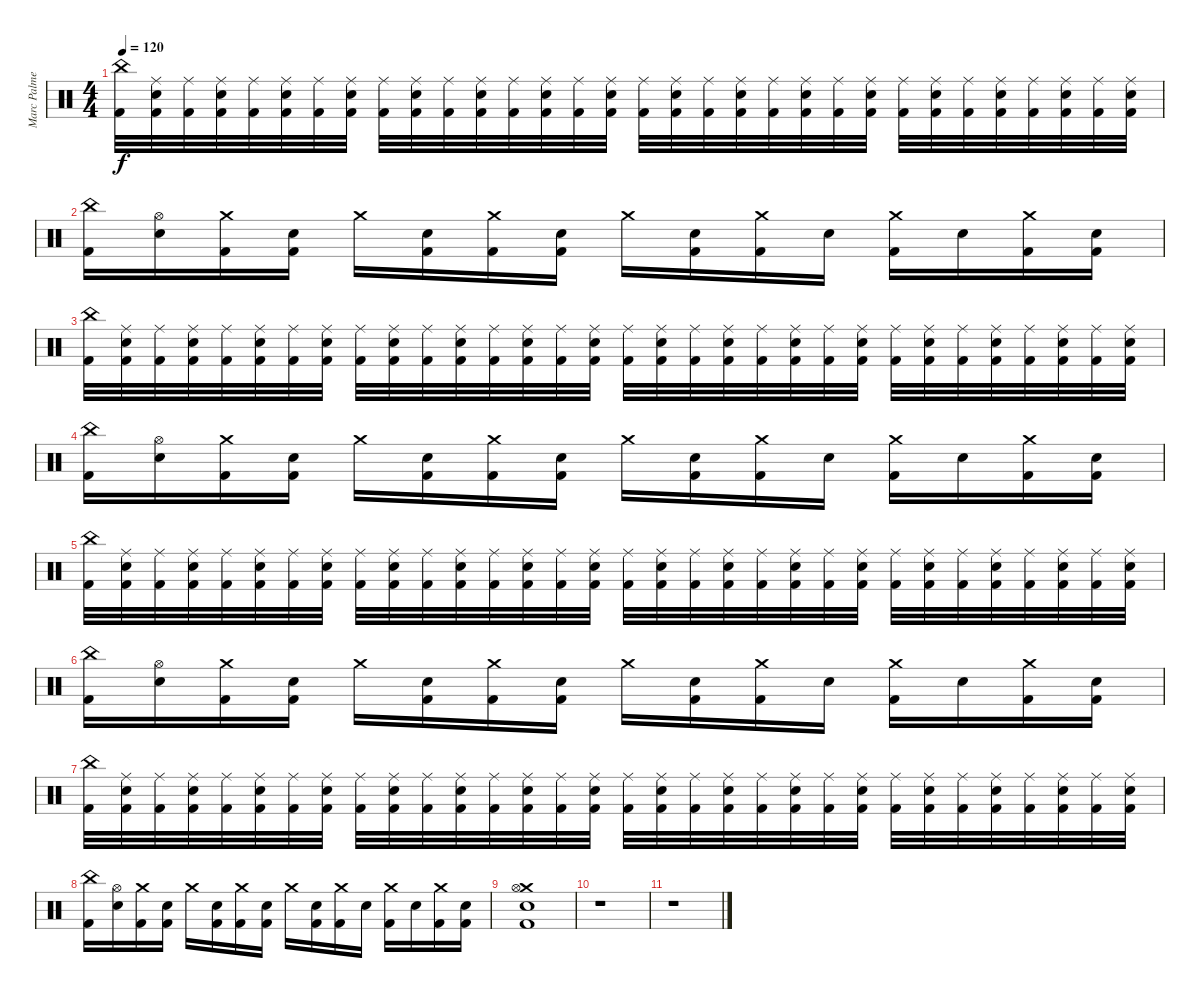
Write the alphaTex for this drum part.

\track ("Marc Palmen" "Marc Palme") {instrument percussion}
\staff {score}
\articulation defaults
\ts (4 4)
\tempo 120
\clef neutral
\ks c
("China (hit)" "Kick (hit) 2").32{dy f} ("Ride (middle)" "Electric Snare (hit)" "Kick (hit) 2").32 ("Ride (middle)" "Kick (hit) 2").32 ("Ride (middle)" "Electric Snare (hit)" "Kick (hit) 2").32 ("Ride (middle)" "Kick (hit) 2").32 ("Ride (middle)" "Electric Snare (hit)" "Kick (hit) 2").32 ("Ride (middle)" "Kick (hit) 2").32 ("Ride (middle)" "Electric Snare (hit)" "Kick (hit) 2").32 ("Ride (middle)" "Kick (hit) 2").32 ("Ride (middle)" "Electric Snare (hit)" "Kick (hit) 2").32 ("Ride (middle)" "Kick (hit) 2").32 ("Ride (middle)" "Electric Snare (hit)" "Kick (hit) 2").32 ("Ride (middle)" "Kick (hit) 2").32 ("Ride (middle)" "Electric Snare (hit)" "Kick (hit) 2").32 ("Ride (middle)" "Kick (hit) 2").32 ("Ride (middle)" "Electric Snare (hit)" "Kick (hit) 2").32 ("Ride (middle)" "Kick (hit) 2").32 ("Ride (middle)" "Electric Snare (hit)" "Kick (hit) 2").32 ("Ride (middle)" "Kick (hit) 2").32 ("Ride (middle)" "Electric Snare (hit)" "Kick (hit) 2").32 ("Ride (middle)" "Kick (hit) 2").32 ("Ride (middle)" "Electric Snare (hit)" "Kick (hit) 2").32 ("Ride (middle)" "Kick (hit) 2").32 ("Ride (middle)" "Electric Snare (hit)" "Kick (hit) 2").32 ("Ride (middle)" "Kick (hit) 2").32 ("Ride (middle)" "Electric Snare (hit)" "Kick (hit) 2").32 ("Ride (middle)" "Kick (hit) 2").32 ("Ride (middle)" "Electric Snare (hit)" "Kick (hit) 2").32 ("Ride (middle)" "Kick (hit) 2").32 ("Ride (middle)" "Electric Snare (hit)" "Kick (hit) 2").32 ("Ride (middle)" "Kick (hit) 2").32 ("Ride (middle)" "Electric Snare (hit)" "Kick (hit) 2").32 |
("China (hit)" "Kick (hit) 2").16 ("Hi-Hat (open)" "Electric Snare (hit)").16 ("Crash medium (hit)" "Kick (hit) 2").16 ("Electric Snare (hit)" "Kick (hit) 2").16 "Crash medium (hit)".16 ("Electric Snare (hit)" "Kick (hit) 2").16 ("Crash medium (hit)" "Kick (hit) 2").16 ("Electric Snare (hit)" "Kick (hit) 2").16 "Crash medium (hit)".16 ("Electric Snare (hit)" "Kick (hit) 2").16 ("Crash medium (hit)" "Kick (hit) 2").16 "Electric Snare (hit)".16 ("Crash medium (hit)" "Kick (hit) 2").16 "Electric Snare (hit)".16 ("Crash medium (hit)" "Kick (hit) 2").16 ("Electric Snare (hit)" "Kick (hit) 2").16 |
("China (hit)" "Kick (hit) 2").32 ("Ride (middle)" "Electric Snare (hit)" "Kick (hit) 2").32 ("Ride (middle)" "Kick (hit) 2").32 ("Ride (middle)" "Electric Snare (hit)" "Kick (hit) 2").32 ("Ride (middle)" "Kick (hit) 2").32 ("Ride (middle)" "Electric Snare (hit)" "Kick (hit) 2").32 ("Ride (middle)" "Kick (hit) 2").32 ("Ride (middle)" "Electric Snare (hit)" "Kick (hit) 2").32 ("Ride (middle)" "Kick (hit) 2").32 ("Ride (middle)" "Electric Snare (hit)" "Kick (hit) 2").32 ("Ride (middle)" "Kick (hit) 2").32 ("Ride (middle)" "Electric Snare (hit)" "Kick (hit) 2").32 ("Ride (middle)" "Kick (hit) 2").32 ("Ride (middle)" "Electric Snare (hit)" "Kick (hit) 2").32 ("Ride (middle)" "Kick (hit) 2").32 ("Ride (middle)" "Electric Snare (hit)" "Kick (hit) 2").32 ("Ride (middle)" "Kick (hit) 2").32 ("Ride (middle)" "Electric Snare (hit)" "Kick (hit) 2").32 ("Ride (middle)" "Kick (hit) 2").32 ("Ride (middle)" "Electric Snare (hit)" "Kick (hit) 2").32 ("Ride (middle)" "Kick (hit) 2").32 ("Ride (middle)" "Electric Snare (hit)" "Kick (hit) 2").32 ("Ride (middle)" "Kick (hit) 2").32 ("Ride (middle)" "Electric Snare (hit)" "Kick (hit) 2").32 ("Ride (middle)" "Kick (hit) 2").32 ("Ride (middle)" "Electric Snare (hit)" "Kick (hit) 2").32 ("Ride (middle)" "Kick (hit) 2").32 ("Ride (middle)" "Electric Snare (hit)" "Kick (hit) 2").32 ("Ride (middle)" "Kick (hit) 2").32 ("Ride (middle)" "Electric Snare (hit)" "Kick (hit) 2").32 ("Ride (middle)" "Kick (hit) 2").32 ("Ride (middle)" "Electric Snare (hit)" "Kick (hit) 2").32 |
("China (hit)" "Kick (hit) 2").16 ("Hi-Hat (open)" "Electric Snare (hit)").16 ("Crash medium (hit)" "Kick (hit) 2").16 ("Electric Snare (hit)" "Kick (hit) 2").16 "Crash medium (hit)".16 ("Electric Snare (hit)" "Kick (hit) 2").16 ("Crash medium (hit)" "Kick (hit) 2").16 ("Electric Snare (hit)" "Kick (hit) 2").16 "Crash medium (hit)".16 ("Electric Snare (hit)" "Kick (hit) 2").16 ("Crash medium (hit)" "Kick (hit) 2").16 "Electric Snare (hit)".16 ("Crash medium (hit)" "Kick (hit) 2").16 "Electric Snare (hit)".16 ("Crash medium (hit)" "Kick (hit) 2").16 ("Electric Snare (hit)" "Kick (hit) 2").16 |
("China (hit)" "Kick (hit) 2").32 ("Ride (middle)" "Electric Snare (hit)" "Kick (hit) 2").32 ("Ride (middle)" "Kick (hit) 2").32 ("Ride (middle)" "Electric Snare (hit)" "Kick (hit) 2").32 ("Ride (middle)" "Kick (hit) 2").32 ("Ride (middle)" "Electric Snare (hit)" "Kick (hit) 2").32 ("Ride (middle)" "Kick (hit) 2").32 ("Ride (middle)" "Electric Snare (hit)" "Kick (hit) 2").32 ("Ride (middle)" "Kick (hit) 2").32 ("Ride (middle)" "Electric Snare (hit)" "Kick (hit) 2").32 ("Ride (middle)" "Kick (hit) 2").32 ("Ride (middle)" "Electric Snare (hit)" "Kick (hit) 2").32 ("Ride (middle)" "Kick (hit) 2").32 ("Ride (middle)" "Electric Snare (hit)" "Kick (hit) 2").32 ("Ride (middle)" "Kick (hit) 2").32 ("Ride (middle)" "Electric Snare (hit)" "Kick (hit) 2").32 ("Ride (middle)" "Kick (hit) 2").32 ("Ride (middle)" "Electric Snare (hit)" "Kick (hit) 2").32 ("Ride (middle)" "Kick (hit) 2").32 ("Ride (middle)" "Electric Snare (hit)" "Kick (hit) 2").32 ("Ride (middle)" "Kick (hit) 2").32 ("Ride (middle)" "Electric Snare (hit)" "Kick (hit) 2").32 ("Ride (middle)" "Kick (hit) 2").32 ("Ride (middle)" "Electric Snare (hit)" "Kick (hit) 2").32 ("Ride (middle)" "Kick (hit) 2").32 ("Ride (middle)" "Electric Snare (hit)" "Kick (hit) 2").32 ("Ride (middle)" "Kick (hit) 2").32 ("Ride (middle)" "Electric Snare (hit)" "Kick (hit) 2").32 ("Ride (middle)" "Kick (hit) 2").32 ("Ride (middle)" "Electric Snare (hit)" "Kick (hit) 2").32 ("Ride (middle)" "Kick (hit) 2").32 ("Ride (middle)" "Electric Snare (hit)" "Kick (hit) 2").32 |
("China (hit)" "Kick (hit) 2").16 ("Hi-Hat (open)" "Electric Snare (hit)").16 ("Crash medium (hit)" "Kick (hit) 2").16 ("Electric Snare (hit)" "Kick (hit) 2").16 "Crash medium (hit)".16 ("Electric Snare (hit)" "Kick (hit) 2").16 ("Crash medium (hit)" "Kick (hit) 2").16 ("Electric Snare (hit)" "Kick (hit) 2").16 "Crash medium (hit)".16 ("Electric Snare (hit)" "Kick (hit) 2").16 ("Crash medium (hit)" "Kick (hit) 2").16 "Electric Snare (hit)".16 ("Crash medium (hit)" "Kick (hit) 2").16 "Electric Snare (hit)".16 ("Crash medium (hit)" "Kick (hit) 2").16 ("Electric Snare (hit)" "Kick (hit) 2").16 |
("China (hit)" "Kick (hit) 2").32 ("Ride (middle)" "Electric Snare (hit)" "Kick (hit) 2").32 ("Ride (middle)" "Kick (hit) 2").32 ("Ride (middle)" "Electric Snare (hit)" "Kick (hit) 2").32 ("Ride (middle)" "Kick (hit) 2").32 ("Ride (middle)" "Electric Snare (hit)" "Kick (hit) 2").32 ("Ride (middle)" "Kick (hit) 2").32 ("Ride (middle)" "Electric Snare (hit)" "Kick (hit) 2").32 ("Ride (middle)" "Kick (hit) 2").32 ("Ride (middle)" "Electric Snare (hit)" "Kick (hit) 2").32 ("Ride (middle)" "Kick (hit) 2").32 ("Ride (middle)" "Electric Snare (hit)" "Kick (hit) 2").32 ("Ride (middle)" "Kick (hit) 2").32 ("Ride (middle)" "Electric Snare (hit)" "Kick (hit) 2").32 ("Ride (middle)" "Kick (hit) 2").32 ("Ride (middle)" "Electric Snare (hit)" "Kick (hit) 2").32 ("Ride (middle)" "Kick (hit) 2").32 ("Ride (middle)" "Electric Snare (hit)" "Kick (hit) 2").32 ("Ride (middle)" "Kick (hit) 2").32 ("Ride (middle)" "Electric Snare (hit)" "Kick (hit) 2").32 ("Ride (middle)" "Kick (hit) 2").32 ("Ride (middle)" "Electric Snare (hit)" "Kick (hit) 2").32 ("Ride (middle)" "Kick (hit) 2").32 ("Ride (middle)" "Electric Snare (hit)" "Kick (hit) 2").32 ("Ride (middle)" "Kick (hit) 2").32 ("Ride (middle)" "Electric Snare (hit)" "Kick (hit) 2").32 ("Ride (middle)" "Kick (hit) 2").32 ("Ride (middle)" "Electric Snare (hit)" "Kick (hit) 2").32 ("Ride (middle)" "Kick (hit) 2").32 ("Ride (middle)" "Electric Snare (hit)" "Kick (hit) 2").32 ("Ride (middle)" "Kick (hit) 2").32 ("Ride (middle)" "Electric Snare (hit)" "Kick (hit) 2").32 |
("China (hit)" "Kick (hit) 2").16 ("Hi-Hat (open)" "Electric Snare (hit)").16 ("Crash medium (hit)" "Kick (hit) 2").16 ("Electric Snare (hit)" "Kick (hit) 2").16 "Crash medium (hit)".16 ("Electric Snare (hit)" "Kick (hit) 2").16 ("Crash medium (hit)" "Kick (hit) 2").16 ("Electric Snare (hit)" "Kick (hit) 2").16 "Crash medium (hit)".16 ("Electric Snare (hit)" "Kick (hit) 2").16 ("Crash medium (hit)" "Kick (hit) 2").16 "Electric Snare (hit)".16 ("Crash medium (hit)" "Kick (hit) 2").16 "Electric Snare (hit)".16 ("Crash medium (hit)" "Kick (hit) 2").16 ("Electric Snare (hit)" "Kick (hit) 2").16 |
("Crash medium (hit)" "Hi-Hat (open)" "Electric Snare (hit)" "Kick (hit) 2").1 |
r.1 |
r.1
